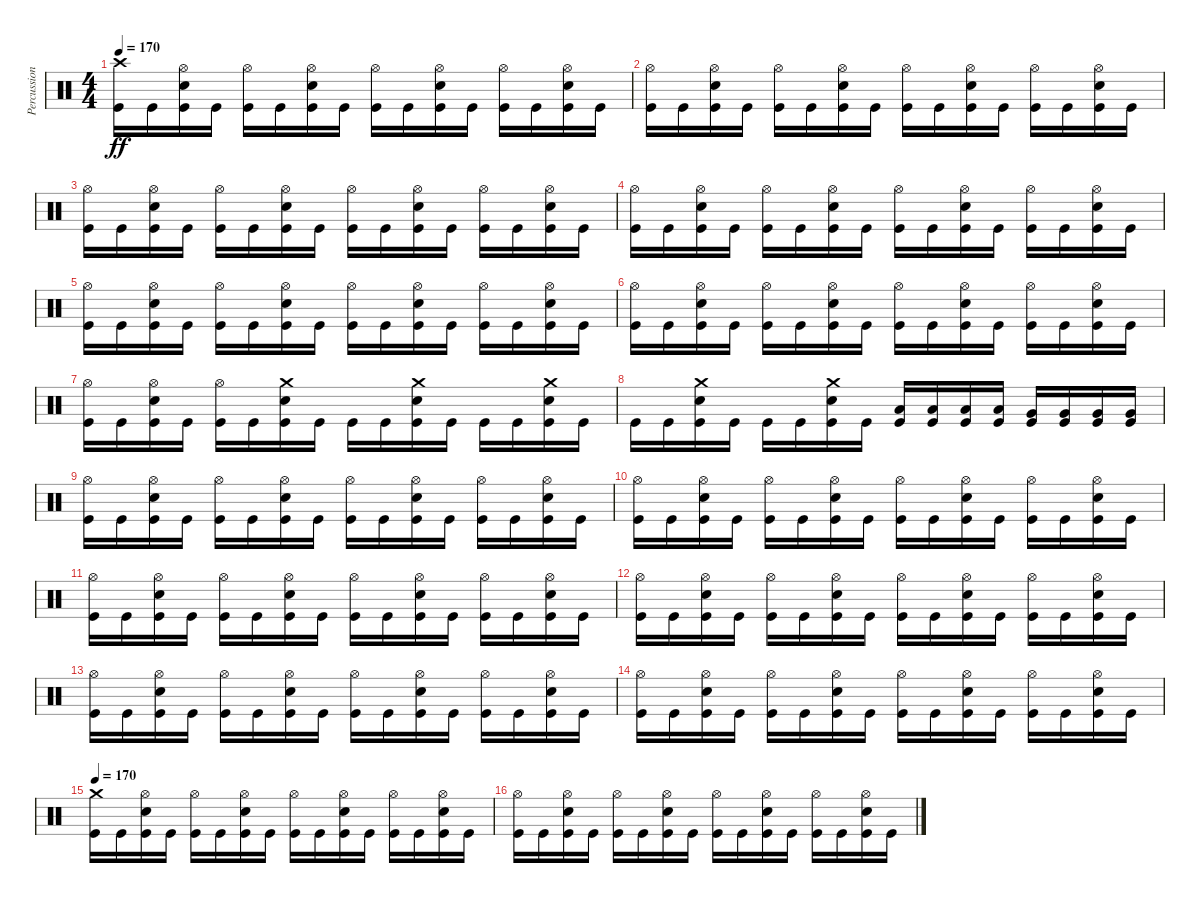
\track ("Percussion" "Percussion") {instrument percussion}
\staff {score}
\articulation defaults
\ts (4 4)
\tempo 170
\clef neutral
\ks c
("Crash high (hit)" "Kick (hit)").16{dy ff} "Kick (hit)".16 ("Hi-Hat (open)" "Snare (hit) 2" "Kick (hit)").16 "Kick (hit)".16 ("Hi-Hat (open)" "Kick (hit)").16 "Kick (hit)".16 ("Hi-Hat (open)" "Snare (hit) 2" "Kick (hit)").16 "Kick (hit)".16 ("Hi-Hat (open)" "Kick (hit)").16 "Kick (hit)".16 ("Hi-Hat (open)" "Snare (hit) 2" "Kick (hit)").16 "Kick (hit)".16 ("Hi-Hat (open)" "Kick (hit)").16 "Kick (hit)".16 ("Hi-Hat (open)" "Snare (hit) 2" "Kick (hit)").16 "Kick (hit)".16 |
("Hi-Hat (open)" "Kick (hit)").16 "Kick (hit)".16 ("Hi-Hat (open)" "Snare (hit) 2" "Kick (hit)").16 "Kick (hit)".16 ("Hi-Hat (open)" "Kick (hit)").16 "Kick (hit)".16 ("Hi-Hat (open)" "Snare (hit) 2" "Kick (hit)").16 "Kick (hit)".16 ("Hi-Hat (open)" "Kick (hit)").16 "Kick (hit)".16 ("Hi-Hat (open)" "Snare (hit) 2" "Kick (hit)").16 "Kick (hit)".16 ("Hi-Hat (open)" "Kick (hit)").16 "Kick (hit)".16 ("Hi-Hat (open)" "Snare (hit) 2" "Kick (hit)").16 "Kick (hit)".16 |
("Hi-Hat (open)" "Kick (hit)").16 "Kick (hit)".16 ("Hi-Hat (open)" "Snare (hit) 2" "Kick (hit)").16 "Kick (hit)".16 ("Hi-Hat (open)" "Kick (hit)").16 "Kick (hit)".16 ("Hi-Hat (open)" "Snare (hit) 2" "Kick (hit)").16 "Kick (hit)".16 ("Hi-Hat (open)" "Kick (hit)").16 "Kick (hit)".16 ("Hi-Hat (open)" "Snare (hit) 2" "Kick (hit)").16 "Kick (hit)".16 ("Hi-Hat (open)" "Kick (hit)").16 "Kick (hit)".16 ("Hi-Hat (open)" "Snare (hit) 2" "Kick (hit)").16 "Kick (hit)".16 |
("Hi-Hat (open)" "Kick (hit)").16 "Kick (hit)".16 ("Hi-Hat (open)" "Snare (hit) 2" "Kick (hit)").16 "Kick (hit)".16 ("Hi-Hat (open)" "Kick (hit)").16 "Kick (hit)".16 ("Hi-Hat (open)" "Snare (hit) 2" "Kick (hit)").16 "Kick (hit)".16 ("Hi-Hat (open)" "Kick (hit)").16 "Kick (hit)".16 ("Hi-Hat (open)" "Snare (hit) 2" "Kick (hit)").16 "Kick (hit)".16 ("Hi-Hat (open)" "Kick (hit)").16 "Kick (hit)".16 ("Hi-Hat (open)" "Snare (hit) 2" "Kick (hit)").16 "Kick (hit)".16 |
("Hi-Hat (open)" "Kick (hit)").16 "Kick (hit)".16 ("Hi-Hat (open)" "Snare (hit) 2" "Kick (hit)").16 "Kick (hit)".16 ("Hi-Hat (open)" "Kick (hit)").16 "Kick (hit)".16 ("Hi-Hat (open)" "Snare (hit) 2" "Kick (hit)").16 "Kick (hit)".16 ("Hi-Hat (open)" "Kick (hit)").16 "Kick (hit)".16 ("Hi-Hat (open)" "Snare (hit) 2" "Kick (hit)").16 "Kick (hit)".16 ("Hi-Hat (open)" "Kick (hit)").16 "Kick (hit)".16 ("Hi-Hat (open)" "Snare (hit) 2" "Kick (hit)").16 "Kick (hit)".16 |
("Hi-Hat (open)" "Kick (hit)").16 "Kick (hit)".16 ("Hi-Hat (open)" "Snare (hit) 2" "Kick (hit)").16 "Kick (hit)".16 ("Hi-Hat (open)" "Kick (hit)").16 "Kick (hit)".16 ("Hi-Hat (open)" "Snare (hit) 2" "Kick (hit)").16 "Kick (hit)".16 ("Hi-Hat (open)" "Kick (hit)").16 "Kick (hit)".16 ("Hi-Hat (open)" "Snare (hit) 2" "Kick (hit)").16 "Kick (hit)".16 ("Hi-Hat (open)" "Kick (hit)").16 "Kick (hit)".16 ("Hi-Hat (open)" "Snare (hit) 2" "Kick (hit)").16 "Kick (hit)".16 |
("Hi-Hat (open)" "Kick (hit)").16 "Kick (hit)".16 ("Hi-Hat (open)" "Snare (hit) 2" "Kick (hit)").16 "Kick (hit)".16 ("Hi-Hat (open)" "Kick (hit)").16 "Kick (hit)".16 ("Crash medium (hit)" "Snare (hit) 2" "Kick (hit)").16 "Kick (hit)".16 "Kick (hit)".16 "Kick (hit)".16 ("Crash medium (hit)" "Snare (hit) 2" "Kick (hit)").16 "Kick (hit)".16 "Kick (hit)".16 "Kick (hit)".16 ("Crash medium (hit)" "Snare (hit) 2" "Kick (hit)").16 "Kick (hit)".16 |
"Kick (hit)".16 "Kick (hit)".16 ("Crash medium (hit)" "Snare (hit) 2" "Kick (hit)").16 "Kick (hit)".16 "Kick (hit)".16 "Kick (hit)".16 ("Crash medium (hit)" "Snare (hit) 2" "Kick (hit)").16 "Kick (hit)".16 ("Low Tom (hit)" "Kick (hit)").16 ("Low Tom (hit)" "Kick (hit)").16 ("Low Tom (hit)" "Kick (hit)").16 ("Low Tom (hit)" "Kick (hit)").16 ("Very Low Tom (hit)" "Kick (hit)").16 ("Very Low Tom (hit)" "Kick (hit)").16 ("Very Low Tom (hit)" "Kick (hit)").16 ("Very Low Tom (hit)" "Kick (hit)").16 |
("Hi-Hat (open)" "Kick (hit)").16 "Kick (hit)".16 ("Hi-Hat (open)" "Snare (hit) 2" "Kick (hit)").16 "Kick (hit)".16 ("Hi-Hat (open)" "Kick (hit)").16 "Kick (hit)".16 ("Hi-Hat (open)" "Snare (hit) 2" "Kick (hit)").16 "Kick (hit)".16 ("Hi-Hat (open)" "Kick (hit)").16 "Kick (hit)".16 ("Hi-Hat (open)" "Snare (hit) 2" "Kick (hit)").16 "Kick (hit)".16 ("Hi-Hat (open)" "Kick (hit)").16 "Kick (hit)".16 ("Hi-Hat (open)" "Snare (hit) 2" "Kick (hit)").16 "Kick (hit)".16 |
("Hi-Hat (open)" "Kick (hit)").16 "Kick (hit)".16 ("Hi-Hat (open)" "Snare (hit) 2" "Kick (hit)").16 "Kick (hit)".16 ("Hi-Hat (open)" "Kick (hit)").16 "Kick (hit)".16 ("Hi-Hat (open)" "Snare (hit) 2" "Kick (hit)").16 "Kick (hit)".16 ("Hi-Hat (open)" "Kick (hit)").16 "Kick (hit)".16 ("Hi-Hat (open)" "Snare (hit) 2" "Kick (hit)").16 "Kick (hit)".16 ("Hi-Hat (open)" "Kick (hit)").16 "Kick (hit)".16 ("Hi-Hat (open)" "Snare (hit) 2" "Kick (hit)").16 "Kick (hit)".16 |
("Hi-Hat (open)" "Kick (hit)").16 "Kick (hit)".16 ("Hi-Hat (open)" "Snare (hit) 2" "Kick (hit)").16 "Kick (hit)".16 ("Hi-Hat (open)" "Kick (hit)").16 "Kick (hit)".16 ("Hi-Hat (open)" "Snare (hit) 2" "Kick (hit)").16 "Kick (hit)".16 ("Hi-Hat (open)" "Kick (hit)").16 "Kick (hit)".16 ("Hi-Hat (open)" "Snare (hit) 2" "Kick (hit)").16 "Kick (hit)".16 ("Hi-Hat (open)" "Kick (hit)").16 "Kick (hit)".16 ("Hi-Hat (open)" "Snare (hit) 2" "Kick (hit)").16 "Kick (hit)".16 |
("Hi-Hat (open)" "Kick (hit)").16 "Kick (hit)".16 ("Hi-Hat (open)" "Snare (hit) 2" "Kick (hit)").16 "Kick (hit)".16 ("Hi-Hat (open)" "Kick (hit)").16 "Kick (hit)".16 ("Hi-Hat (open)" "Snare (hit) 2" "Kick (hit)").16 "Kick (hit)".16 ("Hi-Hat (open)" "Kick (hit)").16 "Kick (hit)".16 ("Hi-Hat (open)" "Snare (hit) 2" "Kick (hit)").16 "Kick (hit)".16 ("Hi-Hat (open)" "Kick (hit)").16 "Kick (hit)".16 ("Hi-Hat (open)" "Snare (hit) 2" "Kick (hit)").16 "Kick (hit)".16 |
("Hi-Hat (open)" "Kick (hit)").16 "Kick (hit)".16 ("Hi-Hat (open)" "Snare (hit) 2" "Kick (hit)").16 "Kick (hit)".16 ("Hi-Hat (open)" "Kick (hit)").16 "Kick (hit)".16 ("Hi-Hat (open)" "Snare (hit) 2" "Kick (hit)").16 "Kick (hit)".16 ("Hi-Hat (open)" "Kick (hit)").16 "Kick (hit)".16 ("Hi-Hat (open)" "Snare (hit) 2" "Kick (hit)").16 "Kick (hit)".16 ("Hi-Hat (open)" "Kick (hit)").16 "Kick (hit)".16 ("Hi-Hat (open)" "Snare (hit) 2" "Kick (hit)").16 "Kick (hit)".16 |
("Hi-Hat (open)" "Kick (hit)").16 "Kick (hit)".16 ("Hi-Hat (open)" "Snare (hit) 2" "Kick (hit)").16 "Kick (hit)".16 ("Hi-Hat (open)" "Kick (hit)").16 "Kick (hit)".16 ("Hi-Hat (open)" "Snare (hit) 2" "Kick (hit)").16 "Kick (hit)".16 ("Hi-Hat (open)" "Kick (hit)").16 "Kick (hit)".16 ("Hi-Hat (open)" "Snare (hit) 2" "Kick (hit)").16 "Kick (hit)".16 ("Hi-Hat (open)" "Kick (hit)").16 "Kick (hit)".16 ("Hi-Hat (open)" "Snare (hit) 2" "Kick (hit)").16 "Kick (hit)".16 |
\tempo 170
("Crash medium (hit)" "Kick (hit)").16 "Kick (hit)".16 ("Hi-Hat (open)" "Snare (hit) 2" "Kick (hit)").16 "Kick (hit)".16 ("Hi-Hat (open)" "Kick (hit)").16 "Kick (hit)".16 ("Hi-Hat (open)" "Snare (hit) 2" "Kick (hit)").16 "Kick (hit)".16 ("Hi-Hat (open)" "Kick (hit)").16 "Kick (hit)".16 ("Hi-Hat (open)" "Snare (hit) 2" "Kick (hit)").16 "Kick (hit)".16 ("Hi-Hat (open)" "Kick (hit)").16 "Kick (hit)".16 ("Hi-Hat (open)" "Snare (hit) 2" "Kick (hit)").16 "Kick (hit)".16 |
("Hi-Hat (open)" "Kick (hit)").16 "Kick (hit)".16 ("Hi-Hat (open)" "Snare (hit) 2" "Kick (hit)").16 "Kick (hit)".16 ("Hi-Hat (open)" "Kick (hit)").16 "Kick (hit)".16 ("Hi-Hat (open)" "Snare (hit) 2" "Kick (hit)").16 "Kick (hit)".16 ("Hi-Hat (open)" "Kick (hit)").16 "Kick (hit)".16 ("Hi-Hat (open)" "Snare (hit) 2" "Kick (hit)").16 "Kick (hit)".16 ("Hi-Hat (open)" "Kick (hit)").16 "Kick (hit)".16 ("Hi-Hat (open)" "Snare (hit) 2" "Kick (hit)").16 "Kick (hit)".16
